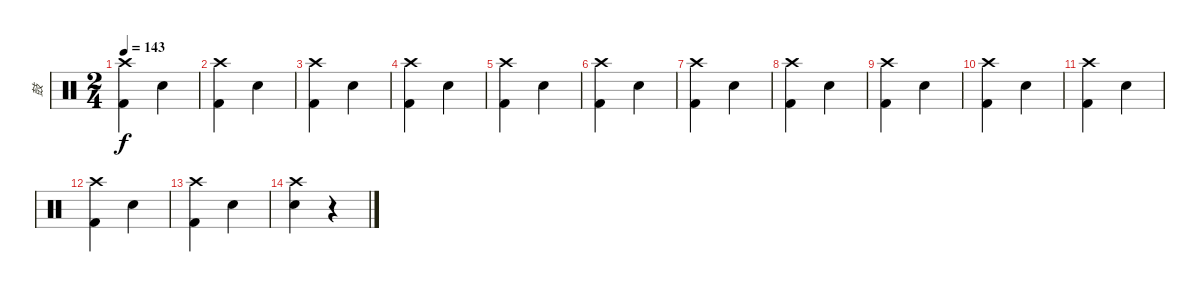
\track ("鼓" "鼓") {instrument percussion}
\staff {score}
\articulation defaults
\ts (2 4)
\tempo 143
\clef neutral
\ks c
("Kick (hit) 2" "Crash high (hit)").4{dy f} "Hand Clap (hit)".4 |
("Kick (hit) 2" "Crash high (hit)").4 "Hand Clap (hit)".4 |
("Kick (hit) 2" "Crash high (hit)").4 "Hand Clap (hit)".4 |
("Kick (hit) 2" "Crash high (hit)").4 "Hand Clap (hit)".4 |
("Kick (hit) 2" "Crash high (hit)").4 "Hand Clap (hit)".4 |
("Kick (hit) 2" "Crash high (hit)").4 "Hand Clap (hit)".4 |
("Kick (hit) 2" "Crash high (hit)").4 "Hand Clap (hit)".4 |
("Kick (hit) 2" "Crash high (hit)").4 "Hand Clap (hit)".4 |
("Kick (hit) 2" "Crash high (hit)").4 "Hand Clap (hit)".4 |
("Kick (hit) 2" "Crash high (hit)").4 "Hand Clap (hit)".4 |
("Kick (hit) 2" "Crash high (hit)").4 "Hand Clap (hit)".4 |
("Kick (hit) 2" "Crash high (hit)").4 "Hand Clap (hit)".4 |
("Kick (hit) 2" "Crash high (hit)").4 "Hand Clap (hit)".4 |
("Snare (hit) 2" "Crash high (hit)").4 r.4
